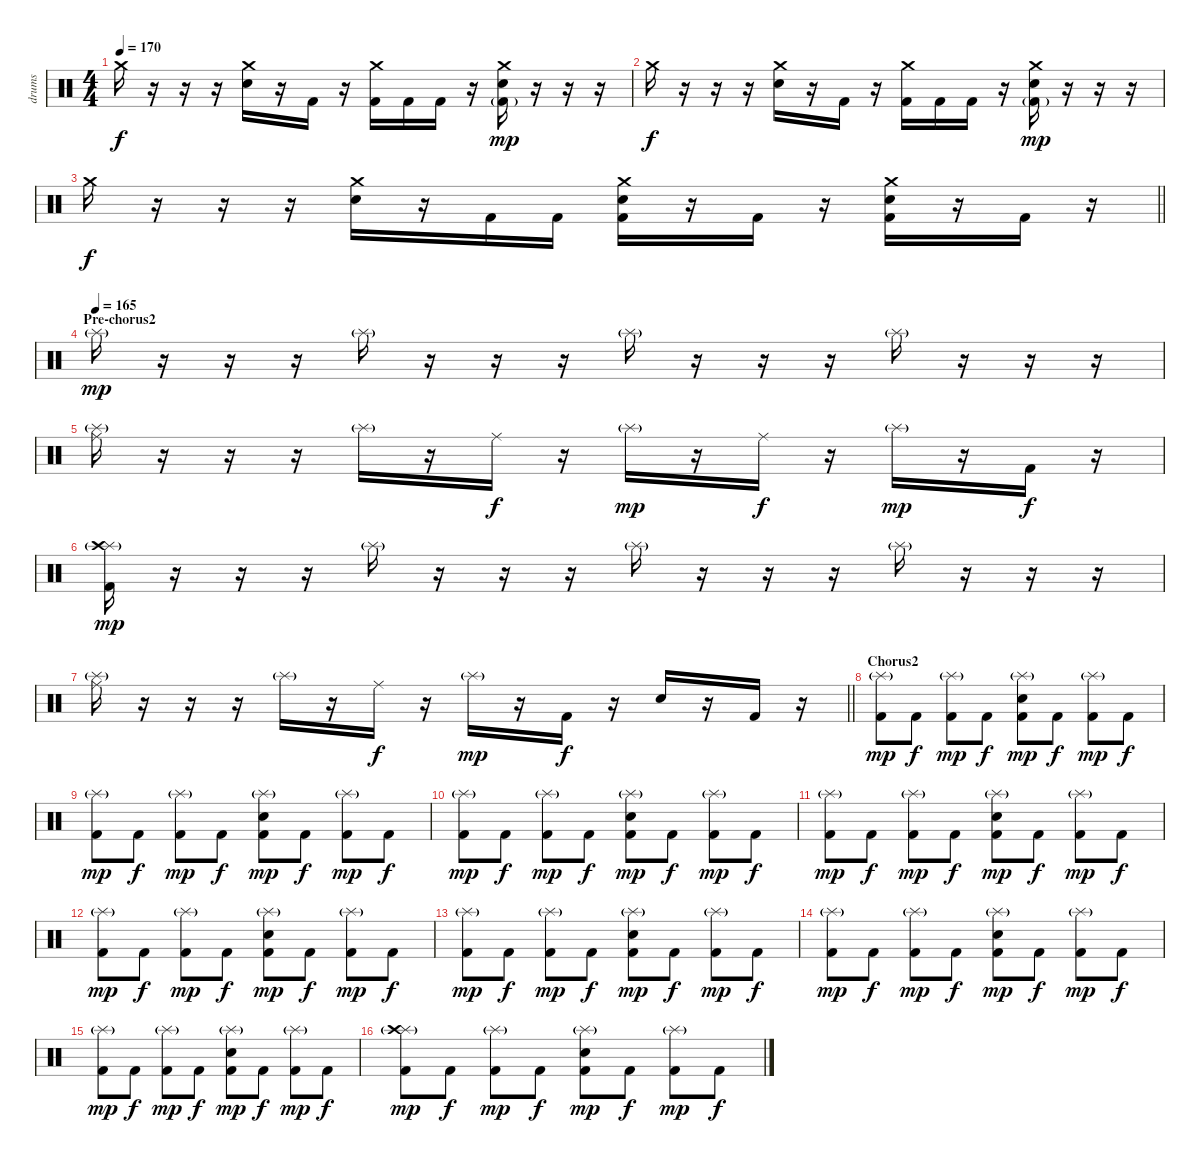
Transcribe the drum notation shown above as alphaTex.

\track ("drums" "drums") {instrument percussion}
\staff {score}
\articulation defaults
\ts (4 4)
\tempo 170
\clef neutral
\ks c "Crash medium (hit)".16{dy f}
r.16 r.16 r.16 ("Crash medium (hit)" "Snare (hit) 2").16 r.16 "Kick (hit) 2".16 r.16 ("Crash medium (hit)" "Kick (hit) 2").16 "Kick (hit) 2".16 "Kick (hit) 2".16 r.16 ("Crash medium (hit)" "Snare (hit) 2" "Kick (hit) 2"{g}).16{dy mp} r.16 r.16 r.16 |
"Crash medium (hit)".16{dy f} r.16 r.16 r.16 ("Crash medium (hit)" "Snare (hit) 2").16 r.16 "Kick (hit) 2".16 r.16 ("Crash medium (hit)" "Kick (hit) 2").16 "Kick (hit) 2".16 "Kick (hit) 2".16 r.16 ("Crash medium (hit)" "Snare (hit) 2" "Kick (hit) 2"{g}).16{dy mp} r.16 r.16 r.16 |
\barLineRight lightlight "Crash medium (hit)".16{dy f}
r.16 r.16 r.16 ("Crash medium (hit)" "Snare (hit) 2").16 r.16 "Kick (hit) 2".16 "Kick (hit) 2".16 ("Crash medium (hit)" "Snare (hit) 2" "Kick (hit) 2").16 r.16 "Kick (hit) 2".16 r.16 ("Crash medium (hit)" "Snare (hit) 2" "Kick (hit) 2").16 r.16 "Kick (hit) 2".16 r.16 |
\section ("" "Pre-chorus2")
\tempo (165)
"Splash (hit)"{g}.16{dy mp} r.16 r.16 r.16 "Splash (hit)"{g}.16 r.16 r.16 r.16 "Splash (hit)"{g}.16 r.16 r.16 r.16 "Splash (hit)"{g}.16 r.16 r.16 r.16 |
("Splash (hit)"{g} "Ride (middle)").16 r.16 r.16 r.16 "Splash (hit)"{g}.16 r.16 "Ride (middle)".16{dy f} r.16 "Splash (hit)"{g}.16{dy mp} r.16 "Ride (middle)".16{dy f} r.16 "Splash (hit)"{g}.16{dy mp} r.16 "Kick (hit) 2".16{dy f} r.16 |
("Splash (hit)"{g} "Crash high (hit)" "Kick (hit) 2").16{dy mp} r.16 r.16 r.16 "Splash (hit)"{g}.16 r.16 r.16 r.16 "Splash (hit)"{g}.16 r.16 r.16 r.16 "Splash (hit)"{g}.16 r.16 r.16 r.16 |
\barLineRight lightlight
("Splash (hit)"{g} "Ride (middle)").16 r.16 r.16 r.16 "Splash (hit)"{g}.16 r.16 "Ride (middle)".16{dy f} r.16 "Splash (hit)"{g}.16{dy mp} r.16 "Kick (hit) 2".16{dy f} r.16 "Snare (hit) 2".16 r.16 "Kick (hit) 2".16 r.16 |
\section ("" "Chorus2")
("Splash (hit)"{g} "Kick (hit) 2").8{dy mp} "Kick (hit) 2".8{dy f} ("Splash (hit)"{g} "Kick (hit) 2").8{dy mp} "Kick (hit) 2".8{dy f} ("Splash (hit)"{g} "Snare (hit) 2" "Kick (hit) 2").8{dy mp} "Kick (hit) 2".8{dy f} ("Splash (hit)"{g} "Kick (hit) 2").8{dy mp} "Kick (hit) 2".8{dy f} |
("Splash (hit)"{g} "Kick (hit) 2").8{dy mp} "Kick (hit) 2".8{dy f} ("Splash (hit)"{g} "Kick (hit) 2").8{dy mp} "Kick (hit) 2".8{dy f} ("Splash (hit)"{g} "Snare (hit) 2" "Kick (hit) 2").8{dy mp} "Kick (hit) 2".8{dy f} ("Splash (hit)"{g} "Kick (hit) 2").8{dy mp} "Kick (hit) 2".8{dy f} |
("Splash (hit)"{g} "Kick (hit) 2").8{dy mp} "Kick (hit) 2".8{dy f} ("Splash (hit)"{g} "Kick (hit) 2").8{dy mp} "Kick (hit) 2".8{dy f} ("Splash (hit)"{g} "Snare (hit) 2" "Kick (hit) 2").8{dy mp} "Kick (hit) 2".8{dy f} ("Splash (hit)"{g} "Kick (hit) 2").8{dy mp} "Kick (hit) 2".8{dy f} |
("Splash (hit)"{g} "Kick (hit) 2").8{dy mp} "Kick (hit) 2".8{dy f} ("Splash (hit)"{g} "Kick (hit) 2").8{dy mp} "Kick (hit) 2".8{dy f} ("Splash (hit)"{g} "Snare (hit) 2" "Kick (hit) 2").8{dy mp} "Kick (hit) 2".8{dy f} ("Splash (hit)"{g} "Kick (hit) 2").8{dy mp} "Kick (hit) 2".8{dy f} |
("Splash (hit)"{g} "Kick (hit) 2").8{dy mp} "Kick (hit) 2".8{dy f} ("Splash (hit)"{g} "Kick (hit) 2").8{dy mp} "Kick (hit) 2".8{dy f} ("Splash (hit)"{g} "Snare (hit) 2" "Kick (hit) 2").8{dy mp} "Kick (hit) 2".8{dy f} ("Splash (hit)"{g} "Kick (hit) 2").8{dy mp} "Kick (hit) 2".8{dy f} |
("Splash (hit)"{g} "Kick (hit) 2").8{dy mp} "Kick (hit) 2".8{dy f} ("Splash (hit)"{g} "Kick (hit) 2").8{dy mp} "Kick (hit) 2".8{dy f} ("Splash (hit)"{g} "Snare (hit) 2" "Kick (hit) 2").8{dy mp} "Kick (hit) 2".8{dy f} ("Splash (hit)"{g} "Kick (hit) 2").8{dy mp} "Kick (hit) 2".8{dy f} |
("Splash (hit)"{g} "Kick (hit) 2").8{dy mp} "Kick (hit) 2".8{dy f} ("Splash (hit)"{g} "Kick (hit) 2").8{dy mp} "Kick (hit) 2".8{dy f} ("Splash (hit)"{g} "Snare (hit) 2" "Kick (hit) 2").8{dy mp} "Kick (hit) 2".8{dy f} ("Splash (hit)"{g} "Kick (hit) 2").8{dy mp} "Kick (hit) 2".8{dy f} |
("Splash (hit)"{g} "Kick (hit) 2").8{dy mp} "Kick (hit) 2".8{dy f} ("Splash (hit)"{g} "Kick (hit) 2").8{dy mp} "Kick (hit) 2".8{dy f} ("Splash (hit)"{g} "Snare (hit) 2" "Kick (hit) 2").8{dy mp} "Kick (hit) 2".8{dy f} ("Splash (hit)"{g} "Kick (hit) 2").8{dy mp} "Kick (hit) 2".8{dy f} |
("Splash (hit)"{g} "Crash high (hit)" "Kick (hit) 2").8{dy mp} "Kick (hit) 2".8{dy f} ("Splash (hit)"{g} "Kick (hit) 2").8{dy mp} "Kick (hit) 2".8{dy f} ("Splash (hit)"{g} "Snare (hit) 2" "Kick (hit) 2").8{dy mp} "Kick (hit) 2".8{dy f} ("Splash (hit)"{g} "Kick (hit) 2").8{dy mp} "Kick (hit) 2".8{dy f}
